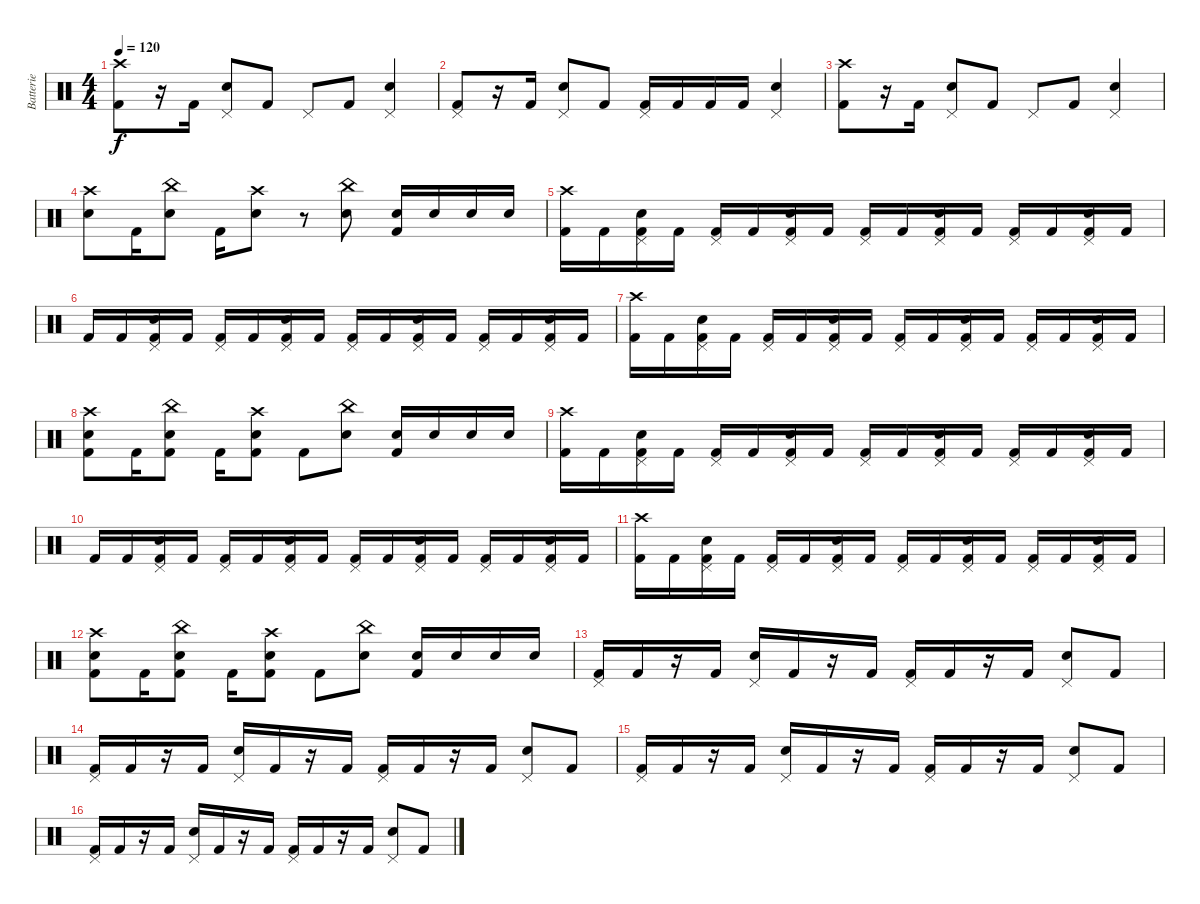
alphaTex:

\track ("Batterie" "Batterie") {instrument percussion}
\staff {score}
\articulation defaults
\ts (4 4)
\tempo 120
\clef neutral
\ks c
("Crash high (hit)" "Kick (hit) 2").8{dy f} r.16 "Kick (hit) 2".16 ("Snare (hit) 2" "Pedal Hi-Hat (hit)").8 "Kick (hit) 2".8 "Pedal Hi-Hat (hit)".8 "Kick (hit) 2".8 ("Snare (hit) 2" "Pedal Hi-Hat (hit)").4 |
("Kick (hit) 2" "Pedal Hi-Hat (hit)").8 r.16 "Kick (hit) 2".16 ("Snare (hit) 2" "Pedal Hi-Hat (hit)").8 "Kick (hit) 2".8 ("Kick (hit) 2" "Pedal Hi-Hat (hit)").16 "Kick (hit) 2".16 "Kick (hit) 2".16 "Kick (hit) 2".16 ("Snare (hit) 2" "Pedal Hi-Hat (hit)").4 |
("Crash high (hit)" "Kick (hit) 2").8 r.16 "Kick (hit) 2".16 ("Snare (hit) 2" "Pedal Hi-Hat (hit)").8 "Kick (hit) 2".8 "Pedal Hi-Hat (hit)".8 "Kick (hit) 2".8 ("Snare (hit) 2" "Pedal Hi-Hat (hit)").4 |
("Crash high (hit)" "Snare (hit) 2").8 "Kick (hit) 2".16 ("China (hit)" "Snare (hit) 2").8 "Kick (hit) 2".16 ("Crash high (hit)" "Snare (hit) 2").8 r.8 ("China (hit)" "Snare (hit) 2").8 ("Snare (hit) 2" "Kick (hit) 2").16 "Snare (hit) 2".16 "Snare (hit) 2".16 "Snare (hit) 2".16 |
("Crash high (hit)" "Kick (hit) 2").16 "Kick (hit) 2".16 ("Snare (hit) 2" "Kick (hit) 2" "Pedal Hi-Hat (hit)").16 "Kick (hit) 2".16 ("Kick (hit) 2" "Pedal Hi-Hat (hit)").16 "Kick (hit) 2".16 ("Snare (hit) 2" "Kick (hit) 2" "Pedal Hi-Hat (hit)").16 "Kick (hit) 2".16 ("Kick (hit) 2" "Pedal Hi-Hat (hit)").16 "Kick (hit) 2".16 ("Snare (hit) 2" "Kick (hit) 2" "Pedal Hi-Hat (hit)").16 "Kick (hit) 2".16 ("Kick (hit) 2" "Pedal Hi-Hat (hit)").16 "Kick (hit) 2".16 ("Snare (hit) 2" "Kick (hit) 2" "Pedal Hi-Hat (hit)").16 "Kick (hit) 2".16 |
"Kick (hit) 2".16 "Kick (hit) 2".16 ("Snare (hit) 2" "Kick (hit) 2" "Pedal Hi-Hat (hit)").16 "Kick (hit) 2".16 ("Kick (hit) 2" "Pedal Hi-Hat (hit)").16 "Kick (hit) 2".16 ("Snare (hit) 2" "Kick (hit) 2" "Pedal Hi-Hat (hit)").16 "Kick (hit) 2".16 ("Kick (hit) 2" "Pedal Hi-Hat (hit)").16 "Kick (hit) 2".16 ("Snare (hit) 2" "Kick (hit) 2" "Pedal Hi-Hat (hit)").16 "Kick (hit) 2".16 ("Kick (hit) 2" "Pedal Hi-Hat (hit)").16 "Kick (hit) 2".16 ("Snare (hit) 2" "Kick (hit) 2" "Pedal Hi-Hat (hit)").16 "Kick (hit) 2".16 |
("Crash high (hit)" "Kick (hit) 2").16 "Kick (hit) 2".16 ("Snare (hit) 2" "Kick (hit) 2" "Pedal Hi-Hat (hit)").16 "Kick (hit) 2".16 ("Kick (hit) 2" "Pedal Hi-Hat (hit)").16 "Kick (hit) 2".16 ("Snare (hit) 2" "Kick (hit) 2" "Pedal Hi-Hat (hit)").16 "Kick (hit) 2".16 ("Kick (hit) 2" "Pedal Hi-Hat (hit)").16 "Kick (hit) 2".16 ("Snare (hit) 2" "Kick (hit) 2" "Pedal Hi-Hat (hit)").16 "Kick (hit) 2".16 ("Kick (hit) 2" "Pedal Hi-Hat (hit)").16 "Kick (hit) 2".16 ("Snare (hit) 2" "Kick (hit) 2" "Pedal Hi-Hat (hit)").16 "Kick (hit) 2".16 |
("Crash high (hit)" "Snare (hit) 2" "Kick (hit) 2").8 "Kick (hit) 2".16 ("China (hit)" "Snare (hit) 2" "Kick (hit) 2").8 "Kick (hit) 2".16 ("Crash high (hit)" "Snare (hit) 2" "Kick (hit) 2").8 "Kick (hit) 2".8 ("China (hit)" "Snare (hit) 2").8 ("Snare (hit) 2" "Kick (hit) 2").16 "Snare (hit) 2".16 "Snare (hit) 2".16 "Snare (hit) 2".16 |
("Crash high (hit)" "Kick (hit) 2").16 "Kick (hit) 2".16 ("Snare (hit) 2" "Kick (hit) 2" "Pedal Hi-Hat (hit)").16 "Kick (hit) 2".16 ("Kick (hit) 2" "Pedal Hi-Hat (hit)").16 "Kick (hit) 2".16 ("Snare (hit) 2" "Kick (hit) 2" "Pedal Hi-Hat (hit)").16 "Kick (hit) 2".16 ("Kick (hit) 2" "Pedal Hi-Hat (hit)").16 "Kick (hit) 2".16 ("Snare (hit) 2" "Kick (hit) 2" "Pedal Hi-Hat (hit)").16 "Kick (hit) 2".16 ("Kick (hit) 2" "Pedal Hi-Hat (hit)").16 "Kick (hit) 2".16 ("Snare (hit) 2" "Kick (hit) 2" "Pedal Hi-Hat (hit)").16 "Kick (hit) 2".16 |
"Kick (hit) 2".16 "Kick (hit) 2".16 ("Snare (hit) 2" "Kick (hit) 2" "Pedal Hi-Hat (hit)").16 "Kick (hit) 2".16 ("Kick (hit) 2" "Pedal Hi-Hat (hit)").16 "Kick (hit) 2".16 ("Snare (hit) 2" "Kick (hit) 2" "Pedal Hi-Hat (hit)").16 "Kick (hit) 2".16 ("Kick (hit) 2" "Pedal Hi-Hat (hit)").16 "Kick (hit) 2".16 ("Snare (hit) 2" "Kick (hit) 2" "Pedal Hi-Hat (hit)").16 "Kick (hit) 2".16 ("Kick (hit) 2" "Pedal Hi-Hat (hit)").16 "Kick (hit) 2".16 ("Snare (hit) 2" "Kick (hit) 2" "Pedal Hi-Hat (hit)").16 "Kick (hit) 2".16 |
("Crash high (hit)" "Kick (hit) 2").16 "Kick (hit) 2".16 ("Snare (hit) 2" "Kick (hit) 2" "Pedal Hi-Hat (hit)").16 "Kick (hit) 2".16 ("Kick (hit) 2" "Pedal Hi-Hat (hit)").16 "Kick (hit) 2".16 ("Snare (hit) 2" "Kick (hit) 2" "Pedal Hi-Hat (hit)").16 "Kick (hit) 2".16 ("Kick (hit) 2" "Pedal Hi-Hat (hit)").16 "Kick (hit) 2".16 ("Snare (hit) 2" "Kick (hit) 2" "Pedal Hi-Hat (hit)").16 "Kick (hit) 2".16 ("Kick (hit) 2" "Pedal Hi-Hat (hit)").16 "Kick (hit) 2".16 ("Snare (hit) 2" "Kick (hit) 2" "Pedal Hi-Hat (hit)").16 "Kick (hit) 2".16 |
("Crash high (hit)" "Snare (hit) 2" "Kick (hit) 2").8 "Kick (hit) 2".16 ("China (hit)" "Snare (hit) 2" "Kick (hit) 2").8 "Kick (hit) 2".16 ("Crash high (hit)" "Snare (hit) 2" "Kick (hit) 2").8 "Kick (hit) 2".8 ("China (hit)" "Snare (hit) 2").8 ("Snare (hit) 2" "Kick (hit) 2").16 "Snare (hit) 2".16 "Snare (hit) 2".16 "Snare (hit) 2".16 |
("Kick (hit) 2" "Pedal Hi-Hat (hit)").16 "Kick (hit) 2".16 r.16 "Kick (hit) 2".16 ("Snare (hit) 2" "Pedal Hi-Hat (hit)").16 "Kick (hit) 2".16 r.16 "Kick (hit) 2".16 ("Kick (hit) 2" "Pedal Hi-Hat (hit)").16 "Kick (hit) 2".16 r.16 "Kick (hit) 2".16 ("Snare (hit) 2" "Pedal Hi-Hat (hit)").8 "Kick (hit) 2".8 |
("Kick (hit) 2" "Pedal Hi-Hat (hit)").16 "Kick (hit) 2".16 r.16 "Kick (hit) 2".16 ("Snare (hit) 2" "Pedal Hi-Hat (hit)").16 "Kick (hit) 2".16 r.16 "Kick (hit) 2".16 ("Kick (hit) 2" "Pedal Hi-Hat (hit)").16 "Kick (hit) 2".16 r.16 "Kick (hit) 2".16 ("Snare (hit) 2" "Pedal Hi-Hat (hit)").8 "Kick (hit) 2".8 |
("Kick (hit) 2" "Pedal Hi-Hat (hit)").16 "Kick (hit) 2".16 r.16 "Kick (hit) 2".16 ("Snare (hit) 2" "Pedal Hi-Hat (hit)").16 "Kick (hit) 2".16 r.16 "Kick (hit) 2".16 ("Kick (hit) 2" "Pedal Hi-Hat (hit)").16 "Kick (hit) 2".16 r.16 "Kick (hit) 2".16 ("Snare (hit) 2" "Pedal Hi-Hat (hit)").8 "Kick (hit) 2".8 |
("Kick (hit) 2" "Pedal Hi-Hat (hit)").16 "Kick (hit) 2".16 r.16 "Kick (hit) 2".16 ("Snare (hit) 2" "Pedal Hi-Hat (hit)").16 "Kick (hit) 2".16 r.16 "Kick (hit) 2".16 ("Kick (hit) 2" "Pedal Hi-Hat (hit)").16 "Kick (hit) 2".16 r.16 "Kick (hit) 2".16 ("Snare (hit) 2" "Pedal Hi-Hat (hit)").8 "Kick (hit) 2".8
